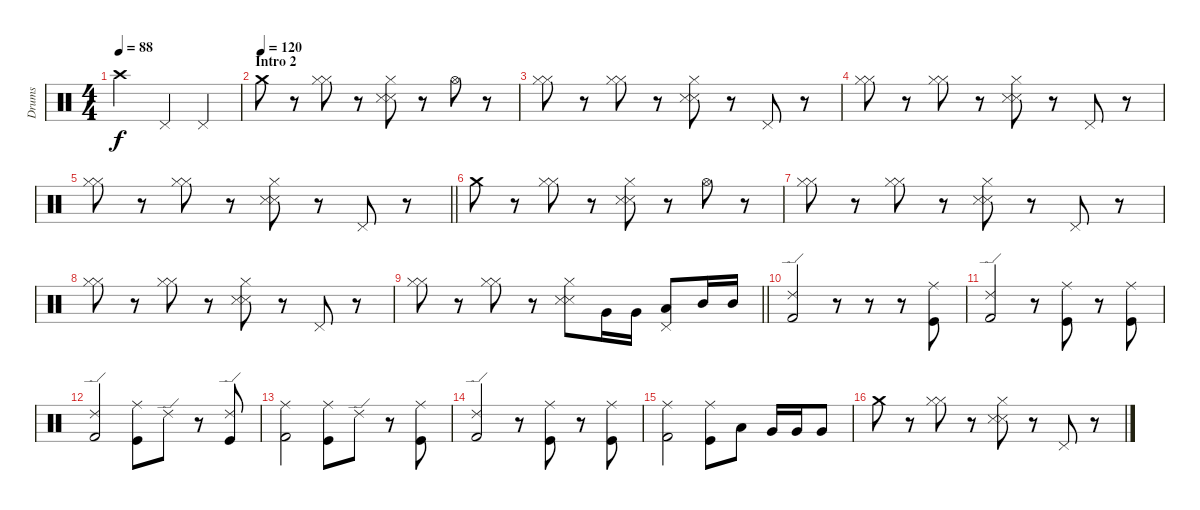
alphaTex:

\track ("Drums" "Drums") {instrument percussion}
\staff {score}
\articulation defaults
\ts (4 4)
\tempo 88
\clef neutral
\ks c "Crash high (hit)".2{dy f} "Pedal Hi-Hat (hit)".4 "Pedal Hi-Hat (hit)".4
|
\section ("" "Intro 2")
\tempo (120)
"Crash medium (hit)".8 r.8 ("Hi-Hat (closed)" "Hi-Hat (closed)").8 r.8 ("Snare (side stick) 3" "Hi-Hat (closed)" "Snare (side stick) 3").8 r.8 "Hi-Hat (open)".8 r.8 |
("Hi-Hat (closed)" "Hi-Hat (closed)").8 r.8 ("Hi-Hat (closed)" "Hi-Hat (closed)").8 r.8 ("Snare (side stick) 3" "Hi-Hat (closed)" "Snare (side stick) 3").8 r.8 "Pedal Hi-Hat (hit)".8 r.8 |
("Hi-Hat (closed)" "Hi-Hat (closed)").8 r.8 ("Hi-Hat (closed)" "Hi-Hat (closed)").8 r.8 ("Snare (side stick) 3" "Hi-Hat (closed)" "Snare (side stick) 3").8 r.8 "Pedal Hi-Hat (hit)".8 r.8 |
\barLineRight lightlight
("Hi-Hat (closed)" "Hi-Hat (closed)").8 r.8 ("Hi-Hat (closed)" "Hi-Hat (closed)").8 r.8 ("Snare (side stick) 3" "Hi-Hat (closed)" "Snare (side stick) 3").8 r.8 "Pedal Hi-Hat (hit)".8 r.8 |
"Crash medium (hit)".8 r.8 ("Hi-Hat (closed)" "Hi-Hat (closed)").8 r.8 ("Snare (side stick) 3" "Hi-Hat (closed)" "Snare (side stick) 3").8 r.8 "Hi-Hat (open)".8 r.8 |
("Hi-Hat (closed)" "Hi-Hat (closed)").8 r.8 ("Hi-Hat (closed)" "Hi-Hat (closed)").8 r.8 ("Snare (side stick) 3" "Hi-Hat (closed)" "Snare (side stick) 3").8 r.8 "Pedal Hi-Hat (hit)".8 r.8 |
("Hi-Hat (closed)" "Hi-Hat (closed)").8 r.8 ("Hi-Hat (closed)" "Hi-Hat (closed)").8 r.8 ("Snare (side stick) 3" "Hi-Hat (closed)" "Snare (side stick) 3").8 r.8 "Pedal Hi-Hat (hit)".8 r.8 |
\barLineRight lightlight
("Hi-Hat (closed)" "Hi-Hat (closed)").8 r.8 ("Hi-Hat (closed)" "Hi-Hat (closed)").8 r.8 ("Snare (side stick) 3" "Hi-Hat (closed)" "Snare (side stick) 3").8 "Very Low Tom (hit)".16 "Very Low Tom (hit)".16 ("Pedal Hi-Hat (hit)" "Low Tom (hit)").8 "Mid Tom (hit)".16 "Mid Tom (hit)".16 |
("Ride (edge) 2" "Kick (hit) 2").2 r.8 r.8 r.8 ("Ride (middle)" "Kick (hit)").8 |
("Ride (edge) 2" "Kick (hit) 2").2 r.8 ("Ride (middle)" "Kick (hit)").8 r.8 ("Ride (middle)" "Kick (hit)").8 |
("Ride (edge) 2" "Kick (hit) 2").2 ("Ride (middle)" "Kick (hit)").8 "Ride (edge) 2".8 r.8 ("Ride (edge) 2" "Kick (hit)").8 |
("Ride (middle)" "Kick (hit) 2").2 ("Ride (middle)" "Kick (hit)").8 "Ride (edge) 2".8 r.8 ("Ride (middle)" "Kick (hit)").8 |
("Ride (edge) 2" "Kick (hit) 2").2 r.8 ("Ride (middle)" "Kick (hit)").8 r.8 ("Ride (middle)" "Kick (hit)").8 |
("Ride (middle)" "Kick (hit) 2").2 ("Ride (middle)" "Kick (hit)").8 "Low Tom (hit)".8 "Very Low Tom (hit)".16 "Very Low Tom (hit)".16 "Very Low Tom (hit)".8 |
"Crash medium (hit)".8 r.8 ("Hi-Hat (closed)" "Hi-Hat (closed)").8 r.8 ("Snare (side stick) 3" "Hi-Hat (closed)" "Snare (side stick) 3").8 r.8 "Pedal Hi-Hat (hit)".8 r.8
